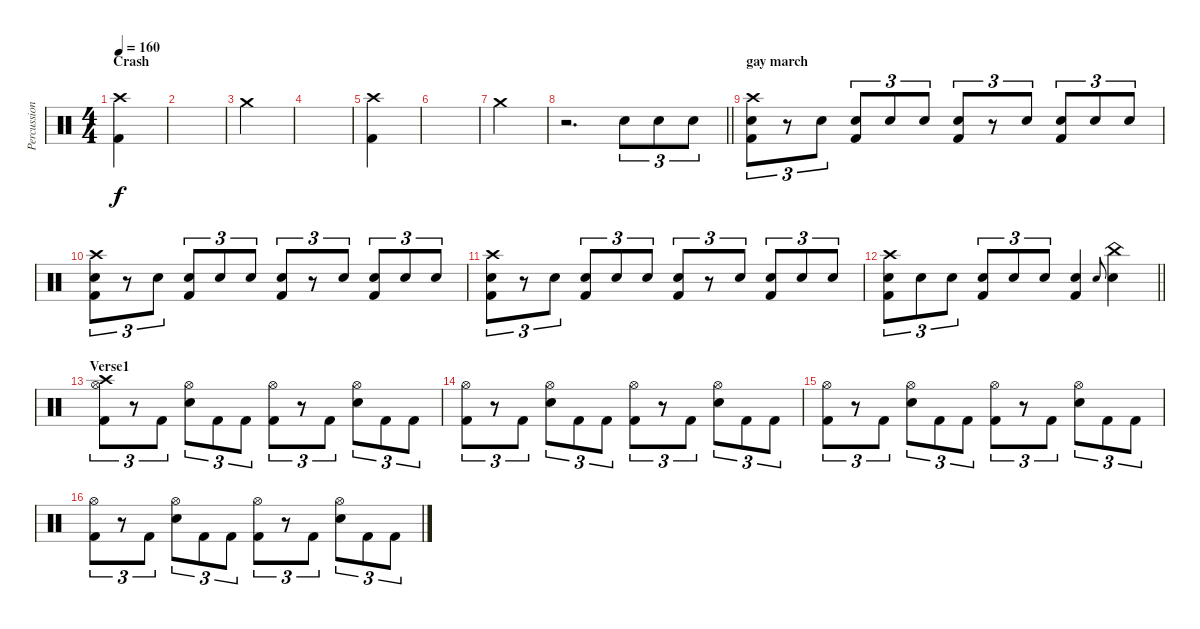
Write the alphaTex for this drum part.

\track ("Percussion" "Percussion") {instrument percussion}
\staff {score}
\articulation defaults
\ts (4 4)
\section ("" "Crash")
\tempo 160
\clef neutral
\ks c
("Crash high (hit)" "Kick (hit) 2").4{dy f} |
|
"Crash medium (hit)".4 |
|
("Crash high (hit)" "Kick (hit) 2").4 |
|
"Crash medium (hit)".4 |
\barLineRight lightlight
r.2{d} "Snare (hit) 2".8{tu (3 2)} "Snare (hit) 2".8{tu (3 2)} "Snare (hit) 2".8{tu (3 2)} |
\section ("" "gay march")
("Crash high (hit)" "Snare (hit) 2" "Kick (hit) 2").8{tu (3 2)} r.8{tu (3 2)} "Snare (hit) 2".8{tu (3 2)} ("Snare (hit) 2" "Kick (hit) 2").8{tu (3 2)} "Snare (hit) 2".8{tu (3 2)} "Snare (hit) 2".8{tu (3 2)} ("Snare (hit) 2" "Kick (hit) 2").8{tu (3 2)} r.8{tu (3 2)} "Snare (hit) 2".8{tu (3 2)} ("Snare (hit) 2" "Kick (hit) 2").8{tu (3 2)} "Snare (hit) 2".8{tu (3 2)} "Snare (hit) 2".8{tu (3 2)} |
("Crash high (hit)" "Snare (hit) 2" "Kick (hit) 2").8{tu (3 2)} r.8{tu (3 2)} "Snare (hit) 2".8{tu (3 2)} ("Snare (hit) 2" "Kick (hit) 2").8{tu (3 2)} "Snare (hit) 2".8{tu (3 2)} "Snare (hit) 2".8{tu (3 2)} ("Snare (hit) 2" "Kick (hit) 2").8{tu (3 2)} r.8{tu (3 2)} "Snare (hit) 2".8{tu (3 2)} ("Snare (hit) 2" "Kick (hit) 2").8{tu (3 2)} "Snare (hit) 2".8{tu (3 2)} "Snare (hit) 2".8{tu (3 2)} |
("Crash high (hit)" "Snare (hit) 2" "Kick (hit) 2").8{tu (3 2)} r.8{tu (3 2)} "Snare (hit) 2".8{tu (3 2)} ("Snare (hit) 2" "Kick (hit) 2").8{tu (3 2)} "Snare (hit) 2".8{tu (3 2)} "Snare (hit) 2".8{tu (3 2)} ("Snare (hit) 2" "Kick (hit) 2").8{tu (3 2)} r.8{tu (3 2)} "Snare (hit) 2".8{tu (3 2)} ("Snare (hit) 2" "Kick (hit) 2").8{tu (3 2)} "Snare (hit) 2".8{tu (3 2)} "Snare (hit) 2".8{tu (3 2)} |
\barLineRight lightlight
("Crash high (hit)" "Snare (hit) 2" "Kick (hit) 2").8{tu (3 2)} "Snare (hit) 2".8{tu (3 2)} "Snare (hit) 2".8{tu (3 2)} ("Snare (hit) 2" "Kick (hit) 2").8{tu (3 2)} "Snare (hit) 2".8{tu (3 2)} "Snare (hit) 2".8{tu (3 2)} ("Snare (hit) 2" "Kick (hit) 2").4 "Snare (hit) 2".8{gr onbeat} ("China (hit)" "Snare (hit) 2").4 |
\section ("" "Verse1")
("Crash high (hit)" "Hi-Hat (open)" "Kick (hit) 2").8{tu (3 2)} r.8{tu (3 2)} "Kick (hit) 2".8{tu (3 2)} ("Hi-Hat (open)" "Snare (hit) 2").8{tu (3 2)} "Kick (hit) 2".8{tu (3 2)} "Kick (hit) 2".8{tu (3 2)} ("Hi-Hat (open)" "Kick (hit) 2").8{tu (3 2)} r.8{tu (3 2)} "Kick (hit) 2".8{tu (3 2)} ("Hi-Hat (open)" "Snare (hit) 2").8{tu (3 2)} "Kick (hit) 2".8{tu (3 2)} "Kick (hit) 2".8{tu (3 2)} |
("Hi-Hat (open)" "Kick (hit) 2").8{tu (3 2)} r.8{tu (3 2)} "Kick (hit) 2".8{tu (3 2)} ("Hi-Hat (open)" "Snare (hit) 2").8{tu (3 2)} "Kick (hit) 2".8{tu (3 2)} "Kick (hit) 2".8{tu (3 2)} ("Hi-Hat (open)" "Kick (hit) 2").8{tu (3 2)} r.8{tu (3 2)} "Kick (hit) 2".8{tu (3 2)} ("Hi-Hat (open)" "Snare (hit) 2").8{tu (3 2)} "Kick (hit) 2".8{tu (3 2)} "Kick (hit) 2".8{tu (3 2)} |
("Hi-Hat (open)" "Kick (hit) 2").8{tu (3 2)} r.8{tu (3 2)} "Kick (hit) 2".8{tu (3 2)} ("Hi-Hat (open)" "Snare (hit) 2").8{tu (3 2)} "Kick (hit) 2".8{tu (3 2)} "Kick (hit) 2".8{tu (3 2)} ("Hi-Hat (open)" "Kick (hit) 2").8{tu (3 2)} r.8{tu (3 2)} "Kick (hit) 2".8{tu (3 2)} ("Hi-Hat (open)" "Snare (hit) 2").8{tu (3 2)} "Kick (hit) 2".8{tu (3 2)} "Kick (hit) 2".8{tu (3 2)} |
("Hi-Hat (open)" "Kick (hit) 2").8{tu (3 2)} r.8{tu (3 2)} "Kick (hit) 2".8{tu (3 2)} ("Hi-Hat (open)" "Snare (hit) 2").8{tu (3 2)} "Kick (hit) 2".8{tu (3 2)} "Kick (hit) 2".8{tu (3 2)} ("Hi-Hat (open)" "Kick (hit) 2").8{tu (3 2)} r.8{tu (3 2)} "Kick (hit) 2".8{tu (3 2)} ("Hi-Hat (open)" "Snare (hit) 2").8{tu (3 2)} "Kick (hit) 2".8{tu (3 2)} "Kick (hit) 2".8{tu (3 2)}
